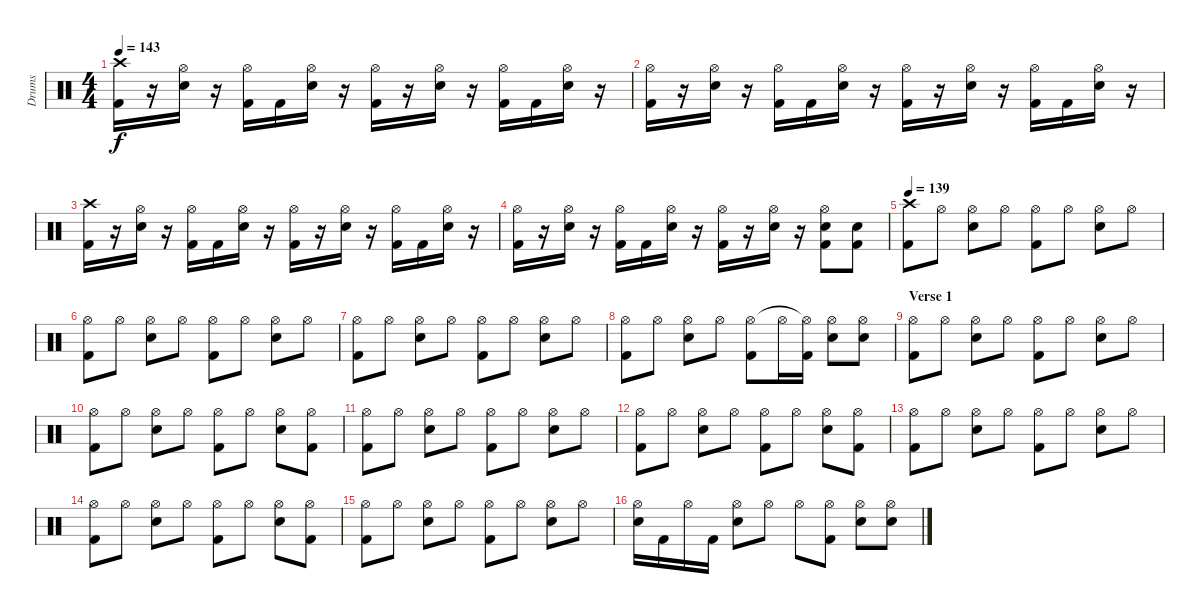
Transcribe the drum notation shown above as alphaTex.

\track ("Drums" "Drums") {instrument percussion}
\staff {score}
\articulation defaults
\ts (4 4)
\tempo 143
\clef neutral
\ks c
("Kick (hit) 2" "Crash high (hit)").16{dy f} r.16 ("Electric Snare (hit)" "Hi-Hat (open)").16 r.16 ("Kick (hit) 2" "Hi-Hat (open)").16 "Kick (hit) 2".16 ("Electric Snare (hit)" "Hi-Hat (open)").16 r.16 ("Kick (hit) 2" "Hi-Hat (open)").16 r.16 ("Electric Snare (hit)" "Hi-Hat (open)").16 r.16 ("Kick (hit) 2" "Hi-Hat (open)").16 "Kick (hit) 2".16 ("Electric Snare (hit)" "Hi-Hat (open)").16 r.16 |
("Kick (hit) 2" "Hi-Hat (open)").16 r.16 ("Electric Snare (hit)" "Hi-Hat (open)").16 r.16 ("Kick (hit) 2" "Hi-Hat (open)").16 "Kick (hit) 2".16 ("Electric Snare (hit)" "Hi-Hat (open)").16 r.16 ("Kick (hit) 2" "Hi-Hat (open)").16 r.16 ("Electric Snare (hit)" "Hi-Hat (open)").16 r.16 ("Kick (hit) 2" "Hi-Hat (open)").16 "Kick (hit) 2".16 ("Electric Snare (hit)" "Hi-Hat (open)").16 r.16 |
("Kick (hit) 2" "Crash high (hit)").16 r.16 ("Electric Snare (hit)" "Hi-Hat (open)").16 r.16 ("Kick (hit) 2" "Hi-Hat (open)").16 "Kick (hit) 2".16 ("Electric Snare (hit)" "Hi-Hat (open)").16 r.16 ("Kick (hit) 2" "Hi-Hat (open)").16 r.16 ("Electric Snare (hit)" "Hi-Hat (open)").16 r.16 ("Kick (hit) 2" "Hi-Hat (open)").16 "Kick (hit) 2".16 ("Electric Snare (hit)" "Hi-Hat (open)").16 r.16 |
("Kick (hit) 2" "Hi-Hat (open)").16 r.16 ("Electric Snare (hit)" "Hi-Hat (open)").16 r.16 ("Kick (hit) 2" "Hi-Hat (open)").16 "Kick (hit) 2".16 ("Electric Snare (hit)" "Hi-Hat (open)").16 r.16 ("Kick (hit) 2" "Hi-Hat (open)").16 r.16 ("Electric Snare (hit)" "Hi-Hat (open)").16 r.16 ("Kick (hit) 2" "Electric Snare (hit)" "Hi-Hat (open)").8 ("Kick (hit) 2" "Electric Snare (hit)").8 |
\tempo 139
("Kick (hit) 2" "Crash high (hit)").8 "Hi-Hat (open)".8 ("Electric Snare (hit)" "Hi-Hat (open)").8 "Hi-Hat (open)".8 ("Kick (hit) 2" "Hi-Hat (open)").8 "Hi-Hat (open)".8 ("Electric Snare (hit)" "Hi-Hat (open)").8 "Hi-Hat (open)".8 |
("Kick (hit) 2" "Hi-Hat (open)").8 "Hi-Hat (open)".8 ("Electric Snare (hit)" "Hi-Hat (open)").8 "Hi-Hat (open)".8 ("Kick (hit) 2" "Hi-Hat (open)").8 "Hi-Hat (open)".8 ("Electric Snare (hit)" "Hi-Hat (open)").8 "Hi-Hat (open)".8 |
("Kick (hit) 2" "Hi-Hat (open)").8 "Hi-Hat (open)".8 ("Electric Snare (hit)" "Hi-Hat (open)").8 "Hi-Hat (open)".8 ("Kick (hit) 2" "Hi-Hat (open)").8 "Hi-Hat (open)".8 ("Electric Snare (hit)" "Hi-Hat (open)").8 "Hi-Hat (open)".8 |
("Kick (hit) 2" "Hi-Hat (open)").8 "Hi-Hat (open)".8 ("Electric Snare (hit)" "Hi-Hat (open)").8 "Hi-Hat (open)".8 ("Kick (hit) 2" "Hi-Hat (open)").8 "Hi-Hat (open)".16 ("Kick (hit) 2" "Hi-Hat (open)"{t}).16 ("Electric Snare (hit)" "Hi-Hat (open)").8 ("Electric Snare (hit)" "Hi-Hat (open)").8 |
\section ("" "Verse 1")
("Kick (hit) 2" "Hi-Hat (open)").8 "Hi-Hat (open)".8 ("Electric Snare (hit)" "Hi-Hat (open)").8 "Hi-Hat (open)".8 ("Kick (hit) 2" "Hi-Hat (open)").8 "Hi-Hat (open)".8 ("Electric Snare (hit)" "Hi-Hat (open)").8 "Hi-Hat (open)".8 |
("Kick (hit) 2" "Hi-Hat (open)").8 "Hi-Hat (open)".8 ("Electric Snare (hit)" "Hi-Hat (open)").8 "Hi-Hat (open)".8 ("Kick (hit) 2" "Hi-Hat (open)").8 "Hi-Hat (open)".8 ("Electric Snare (hit)" "Hi-Hat (open)").8 ("Kick (hit) 2" "Hi-Hat (open)").8 |
("Kick (hit) 2" "Hi-Hat (open)").8 "Hi-Hat (open)".8 ("Electric Snare (hit)" "Hi-Hat (open)").8 "Hi-Hat (open)".8 ("Kick (hit) 2" "Hi-Hat (open)").8 "Hi-Hat (open)".8 ("Electric Snare (hit)" "Hi-Hat (open)").8 "Hi-Hat (open)".8 |
("Kick (hit) 2" "Hi-Hat (open)").8 "Hi-Hat (open)".8 ("Electric Snare (hit)" "Hi-Hat (open)").8 "Hi-Hat (open)".8 ("Kick (hit) 2" "Hi-Hat (open)").8 "Hi-Hat (open)".8 ("Electric Snare (hit)" "Hi-Hat (open)").8 ("Kick (hit) 2" "Hi-Hat (open)").8 |
("Kick (hit) 2" "Hi-Hat (open)").8 "Hi-Hat (open)".8 ("Electric Snare (hit)" "Hi-Hat (open)").8 "Hi-Hat (open)".8 ("Kick (hit) 2" "Hi-Hat (open)").8 "Hi-Hat (open)".8 ("Electric Snare (hit)" "Hi-Hat (open)").8 "Hi-Hat (open)".8 |
("Kick (hit) 2" "Hi-Hat (open)").8 "Hi-Hat (open)".8 ("Electric Snare (hit)" "Hi-Hat (open)").8 "Hi-Hat (open)".8 ("Kick (hit) 2" "Hi-Hat (open)").8 "Hi-Hat (open)".8 ("Electric Snare (hit)" "Hi-Hat (open)").8 ("Kick (hit) 2" "Hi-Hat (open)").8 |
("Kick (hit) 2" "Hi-Hat (open)").8 "Hi-Hat (open)".8 ("Electric Snare (hit)" "Hi-Hat (open)").8 "Hi-Hat (open)".8 ("Kick (hit) 2" "Hi-Hat (open)").8 "Hi-Hat (open)".8 ("Electric Snare (hit)" "Hi-Hat (open)").8 "Hi-Hat (open)".8 |
("Electric Snare (hit)" "Hi-Hat (open)").16 "Kick (hit) 2".16 "Hi-Hat (open)".16 "Kick (hit) 2".16 ("Electric Snare (hit)" "Hi-Hat (open)").8 "Hi-Hat (open)".8 "Hi-Hat (open)".8 ("Kick (hit) 2" "Hi-Hat (open)").8 ("Electric Snare (hit)" "Hi-Hat (open)").8 ("Electric Snare (hit)" "Hi-Hat (open)").8
